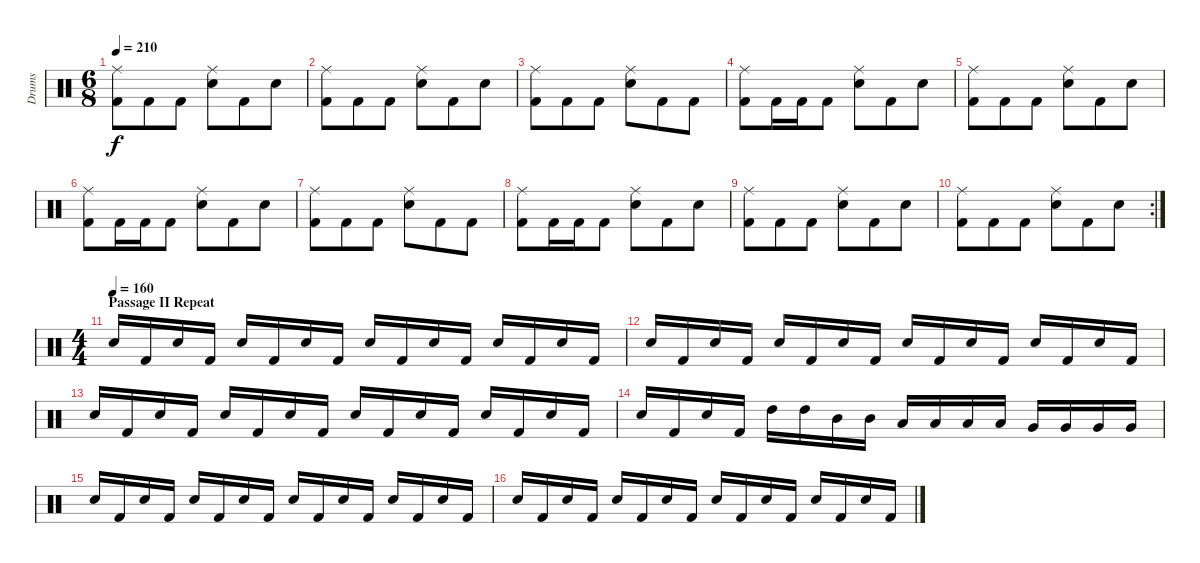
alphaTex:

\track ("Drums" "Drums") {instrument percussion}
\staff {score}
\articulation defaults
\ts (6 8)
\tempo 210
\clef neutral
\ks c
("Ride (middle)" "Kick (hit) 2").8{dy f} "Kick (hit) 2".8 "Kick (hit) 2".8 ("Ride (middle)" "Electric Snare (hit)").8 "Kick (hit) 2".8 "Electric Snare (hit)".8 |
("Ride (middle)" "Kick (hit) 2").8 "Kick (hit) 2".8 "Kick (hit) 2".8 ("Ride (middle)" "Electric Snare (hit)").8 "Kick (hit) 2".8 "Electric Snare (hit)".8 |
("Ride (middle)" "Kick (hit) 2").8 "Kick (hit) 2".8 "Kick (hit) 2".8 ("Ride (middle)" "Electric Snare (hit)").8 "Kick (hit) 2".8 "Kick (hit) 2".8 |
("Ride (middle)" "Kick (hit) 2").8 "Kick (hit) 2".16 "Kick (hit) 2".16 "Kick (hit) 2".8 ("Ride (middle)" "Electric Snare (hit)").8 "Kick (hit) 2".8 "Electric Snare (hit)".8 |
("Ride (middle)" "Kick (hit) 2").8 "Kick (hit) 2".8 "Kick (hit) 2".8 ("Ride (middle)" "Electric Snare (hit)").8 "Kick (hit) 2".8 "Electric Snare (hit)".8 |
("Ride (middle)" "Kick (hit) 2").8 "Kick (hit) 2".16 "Kick (hit) 2".16 "Kick (hit) 2".8 ("Ride (middle)" "Electric Snare (hit)").8 "Kick (hit) 2".8 "Electric Snare (hit)".8 |
("Ride (middle)" "Kick (hit) 2").8 "Kick (hit) 2".8 "Kick (hit) 2".8 ("Ride (middle)" "Electric Snare (hit)").8 "Kick (hit) 2".8 "Kick (hit) 2".8 |
("Ride (middle)" "Kick (hit) 2").8 "Kick (hit) 2".16 "Kick (hit) 2".16 "Kick (hit) 2".8 ("Ride (middle)" "Electric Snare (hit)").8 "Kick (hit) 2".8 "Electric Snare (hit)".8 |
("Ride (middle)" "Kick (hit) 2").8 "Kick (hit) 2".8 "Kick (hit) 2".8 ("Ride (middle)" "Electric Snare (hit)").8 "Kick (hit) 2".8 "Electric Snare (hit)".8 |
\rc 2
("Ride (middle)" "Kick (hit) 2").8 "Kick (hit) 2".8 "Kick (hit) 2".8 ("Ride (middle)" "Electric Snare (hit)").8 "Kick (hit) 2".8 "Electric Snare (hit)".8 |
\ts (4 4)
\section ("" "Passage II Repeat")
\tempo (160)
"Electric Snare (hit)".16 "Kick (hit) 2".16 "Electric Snare (hit)".16 "Kick (hit) 2".16 "Electric Snare (hit)".16 "Kick (hit) 2".16 "Electric Snare (hit)".16 "Kick (hit) 2".16 "Electric Snare (hit)".16 "Kick (hit) 2".16 "Electric Snare (hit)".16 "Kick (hit) 2".16 "Electric Snare (hit)".16 "Kick (hit) 2".16 "Electric Snare (hit)".16 "Kick (hit) 2".16 |
"Electric Snare (hit)".16 "Kick (hit) 2".16 "Electric Snare (hit)".16 "Kick (hit) 2".16 "Electric Snare (hit)".16 "Kick (hit) 2".16 "Electric Snare (hit)".16 "Kick (hit) 2".16 "Electric Snare (hit)".16 "Kick (hit) 2".16 "Electric Snare (hit)".16 "Kick (hit) 2".16 "Electric Snare (hit)".16 "Kick (hit) 2".16 "Electric Snare (hit)".16 "Kick (hit) 2".16 |
"Electric Snare (hit)".16 "Kick (hit) 2".16 "Electric Snare (hit)".16 "Kick (hit) 2".16 "Electric Snare (hit)".16 "Kick (hit) 2".16 "Electric Snare (hit)".16 "Kick (hit) 2".16 "Electric Snare (hit)".16 "Kick (hit) 2".16 "Electric Snare (hit)".16 "Kick (hit) 2".16 "Electric Snare (hit)".16 "Kick (hit) 2".16 "Electric Snare (hit)".16 "Kick (hit) 2".16 |
"Electric Snare (hit)".16 "Kick (hit) 2".16 "Electric Snare (hit)".16 "Kick (hit) 2".16 "High Tom (hit)".16 "High Tom (hit)".16 "Mid Tom (hit)".16 "Mid Tom (hit)".16 "Low Tom (hit)".16 "Low Tom (hit)".16 "Low Tom (hit)".16 "Low Tom (hit)".16 "Very Low Tom (hit)".16 "Very Low Tom (hit)".16 "Very Low Tom (hit)".16 "Very Low Tom (hit)".16 |
"Electric Snare (hit)".16 "Kick (hit) 2".16 "Electric Snare (hit)".16 "Kick (hit) 2".16 "Electric Snare (hit)".16 "Kick (hit) 2".16 "Electric Snare (hit)".16 "Kick (hit) 2".16 "Electric Snare (hit)".16 "Kick (hit) 2".16 "Electric Snare (hit)".16 "Kick (hit) 2".16 "Electric Snare (hit)".16 "Kick (hit) 2".16 "Electric Snare (hit)".16 "Kick (hit) 2".16 |
"Electric Snare (hit)".16 "Kick (hit) 2".16 "Electric Snare (hit)".16 "Kick (hit) 2".16 "Electric Snare (hit)".16 "Kick (hit) 2".16 "Electric Snare (hit)".16 "Kick (hit) 2".16 "Electric Snare (hit)".16 "Kick (hit) 2".16 "Electric Snare (hit)".16 "Kick (hit) 2".16 "Electric Snare (hit)".16 "Kick (hit) 2".16 "Electric Snare (hit)".16 "Kick (hit) 2".16
